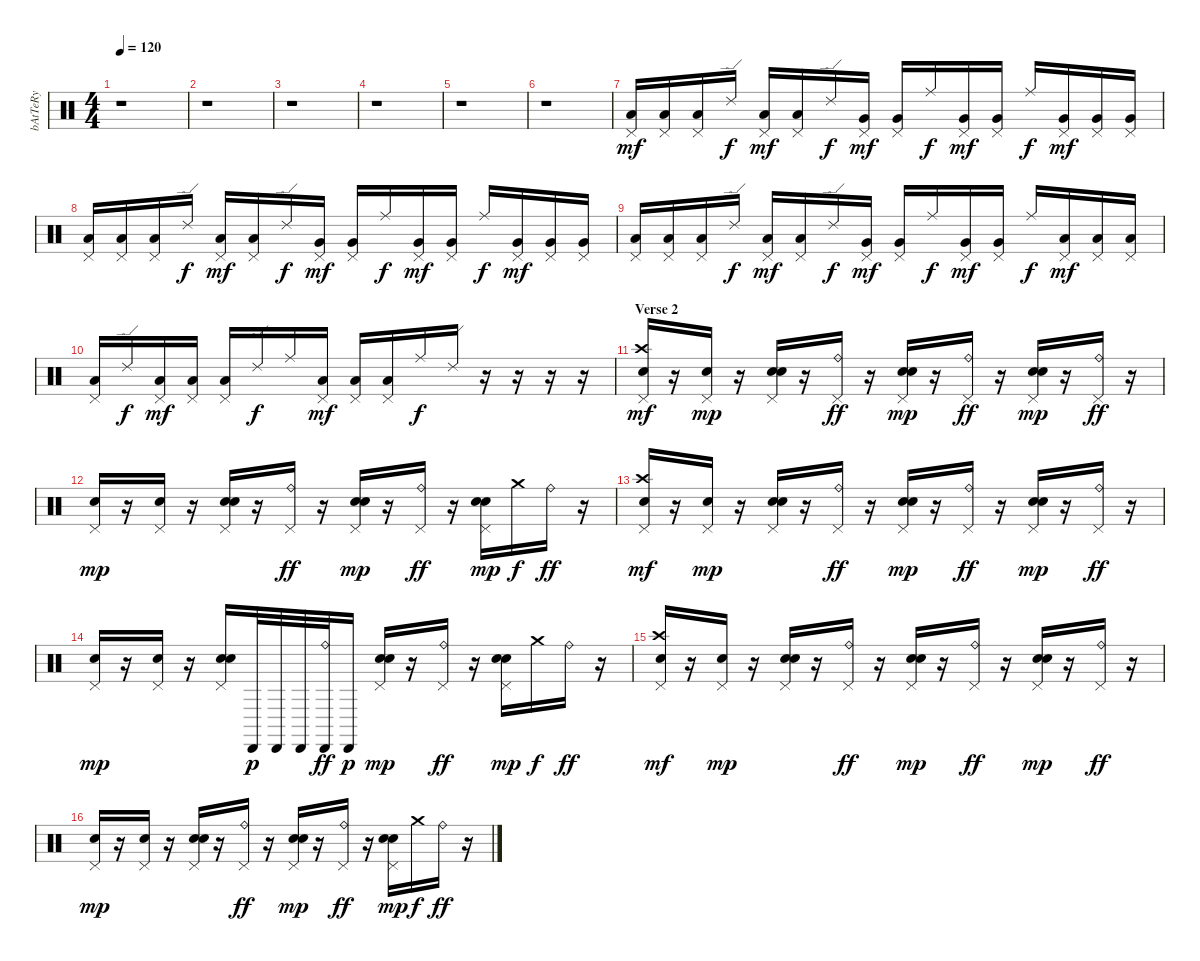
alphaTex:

\track ("bAtTeRy" "bAtTeRy") {instrument percussion}
\staff {score}
\articulation defaults
\ts (4 4)
\tempo 120
\clef neutral
\ks c
r.1{dy f} |
r.1 |
r.1 |
r.1 |
r.1 |
r.1 |
("Low Tom (hit)" "Pedal Hi-Hat (hit)").16{dy mf} ("Low Tom (hit)" "Pedal Hi-Hat (hit)").16 ("Low Tom (hit)" "Pedal Hi-Hat (hit)").16 "Ride (edge) 2".16{dy f} ("Low Tom (hit)" "Pedal Hi-Hat (hit)").16{dy mf} ("Low Tom (hit)" "Pedal Hi-Hat (hit)").16 "Ride (edge) 2".16{dy f} ("Very Low Tom (hit)" "Pedal Hi-Hat (hit)").16{dy mf} ("Very Low Tom (hit)" "Pedal Hi-Hat (hit)").16 "Ride (middle)".16{dy f} ("Very Low Tom (hit)" "Pedal Hi-Hat (hit)").16{dy mf} ("Very Low Tom (hit)" "Pedal Hi-Hat (hit)").16 "Ride (middle)".16{dy f} ("Very Low Tom (hit)" "Pedal Hi-Hat (hit)").16{dy mf} ("Very Low Tom (hit)" "Pedal Hi-Hat (hit)").16 ("Very Low Tom (hit)" "Pedal Hi-Hat (hit)").16 |
("Low Tom (hit)" "Pedal Hi-Hat (hit)").16 ("Low Tom (hit)" "Pedal Hi-Hat (hit)").16 ("Low Tom (hit)" "Pedal Hi-Hat (hit)").16 "Ride (edge) 2".16{dy f} ("Low Tom (hit)" "Pedal Hi-Hat (hit)").16{dy mf} ("Low Tom (hit)" "Pedal Hi-Hat (hit)").16 "Ride (edge) 2".16{dy f} ("Very Low Tom (hit)" "Pedal Hi-Hat (hit)").16{dy mf} ("Very Low Tom (hit)" "Pedal Hi-Hat (hit)").16 "Ride (middle)".16{dy f} ("Very Low Tom (hit)" "Pedal Hi-Hat (hit)").16{dy mf} ("Very Low Tom (hit)" "Pedal Hi-Hat (hit)").16 "Ride (middle)".16{dy f} ("Very Low Tom (hit)" "Pedal Hi-Hat (hit)").16{dy mf} ("Very Low Tom (hit)" "Pedal Hi-Hat (hit)").16 ("Very Low Tom (hit)" "Pedal Hi-Hat (hit)").16 |
("Low Tom (hit)" "Pedal Hi-Hat (hit)").16 ("Low Tom (hit)" "Pedal Hi-Hat (hit)").16 ("Low Tom (hit)" "Pedal Hi-Hat (hit)").16 "Ride (edge) 2".16{dy f} ("Low Tom (hit)" "Pedal Hi-Hat (hit)").16{dy mf} ("Low Tom (hit)" "Pedal Hi-Hat (hit)").16 "Ride (edge) 2".16{dy f} ("Very Low Tom (hit)" "Pedal Hi-Hat (hit)").16{dy mf} ("Very Low Tom (hit)" "Pedal Hi-Hat (hit)").16 "Ride (middle)".16{dy f} ("Very Low Tom (hit)" "Pedal Hi-Hat (hit)").16{dy mf} ("Very Low Tom (hit)" "Pedal Hi-Hat (hit)").16 "Ride (middle)".16{dy f} ("Low Floor Tom (hit)" "Pedal Hi-Hat (hit)").16{dy mf} ("Low Floor Tom (hit)" "Pedal Hi-Hat (hit)").16 ("Low Floor Tom (hit)" "Pedal Hi-Hat (hit)").16 |
("Low Floor Tom (hit)" "Pedal Hi-Hat (hit)").16 "Ride (edge) 2".16{dy f} ("Low Floor Tom (hit)" "Pedal Hi-Hat (hit)").16{dy mf} ("Low Floor Tom (hit)" "Pedal Hi-Hat (hit)").16 ("Low Floor Tom (hit)" "Pedal Hi-Hat (hit)").16 "Ride (edge) 2".16{dy f} "Ride (middle)".16 ("Low Floor Tom (hit)" "Pedal Hi-Hat (hit)").16{dy mf} ("Low Floor Tom (hit)" "Pedal Hi-Hat (hit)").16 ("Low Floor Tom (hit)" "Pedal Hi-Hat (hit)").16 "Ride (middle)".16{dy f} "Ride (edge) 2".16 r.16 r.16 r.16 r.16 |
\section ("" "Verse 2")
("Pedal Hi-Hat (hit)" "Crash high (hit)" "Electric Snare (hit)").16{dy mf} r.16 ("Pedal Hi-Hat (hit)" "Electric Snare (hit)").16{dy mp} r.16 ("Pedal Hi-Hat (hit)" "Electric Snare (hit)" "Electric Snare (hit)").16{bd 480} r.16 ("Pedal Hi-Hat (hit)" "Ride (bell)").16{dy ff} r.16 ("Pedal Hi-Hat (hit)" "Electric Snare (hit)" "Electric Snare (hit)").16{bd 480 dy mp} r.16 ("Pedal Hi-Hat (hit)" "Ride (bell)").16{dy ff} r.16 ("Pedal Hi-Hat (hit)" "Electric Snare (hit)" "Electric Snare (hit)").16{bd 480 dy mp} r.16 ("Pedal Hi-Hat (hit)" "Ride (bell)").16{dy ff} r.16 |
("Pedal Hi-Hat (hit)" "Electric Snare (hit)").16{dy mp} r.16 ("Pedal Hi-Hat (hit)" "Electric Snare (hit)").16 r.16 ("Pedal Hi-Hat (hit)" "Electric Snare (hit)" "Electric Snare (hit)").16{bd 480} r.16 ("Pedal Hi-Hat (hit)" "Ride (bell)").16{dy ff} r.16 ("Pedal Hi-Hat (hit)" "Electric Snare (hit)" "Electric Snare (hit)").16{bd 480 dy mp} r.16 ("Pedal Hi-Hat (hit)" "Ride (bell)").16{dy ff} r.16 ("Pedal Hi-Hat (hit)" "Electric Snare (hit)" "Electric Snare (hit)").16{bd 480 dy mp} "Crash medium (hit)".16{dy f} "Ride (bell)".16{dy ff} r.16 |
("Pedal Hi-Hat (hit)" "Crash high (hit)" "Electric Snare (hit)").16{dy mf} r.16 ("Pedal Hi-Hat (hit)" "Electric Snare (hit)").16{dy mp} r.16 ("Pedal Hi-Hat (hit)" "Electric Snare (hit)" "Electric Snare (hit)").16{bd 480} r.16 ("Pedal Hi-Hat (hit)" "Ride (bell)").16{dy ff} r.16 ("Pedal Hi-Hat (hit)" "Electric Snare (hit)" "Electric Snare (hit)").16{bd 480 dy mp} r.16 ("Pedal Hi-Hat (hit)" "Ride (bell)").16{dy ff} r.16 ("Pedal Hi-Hat (hit)" "Electric Snare (hit)" "Electric Snare (hit)").16{bd 480 dy mp} r.16 ("Pedal Hi-Hat (hit)" "Ride (bell)").16{dy ff} r.16 |
("Pedal Hi-Hat (hit)" "Electric Snare (hit)").16{dy mp} r.16 ("Pedal Hi-Hat (hit)" "Electric Snare (hit)").16 r.16 ("Pedal Hi-Hat (hit)" "Electric Snare (hit)" "Electric Snare (hit)").16{bd 480} "Cabasa (hit)".32{dy p} "Cabasa (hit)".32 "Cabasa (hit)".32 ("Cabasa (hit)" "Ride (bell)").32{dy ff} "Cabasa (hit)".16{dy p} ("Pedal Hi-Hat (hit)" "Electric Snare (hit)" "Electric Snare (hit)").16{bd 480 dy mp} r.16 ("Pedal Hi-Hat (hit)" "Ride (bell)").16{dy ff} r.16 ("Pedal Hi-Hat (hit)" "Electric Snare (hit)" "Electric Snare (hit)").16{bd 480 dy mp} "Crash medium (hit)".16{dy f} "Ride (bell)".16{dy ff} r.16 |
("Pedal Hi-Hat (hit)" "Crash high (hit)" "Electric Snare (hit)").16{dy mf} r.16 ("Pedal Hi-Hat (hit)" "Electric Snare (hit)").16{dy mp} r.16 ("Pedal Hi-Hat (hit)" "Electric Snare (hit)" "Electric Snare (hit)").16{bd 480} r.16 ("Pedal Hi-Hat (hit)" "Ride (bell)").16{dy ff} r.16 ("Pedal Hi-Hat (hit)" "Electric Snare (hit)" "Electric Snare (hit)").16{bd 480 dy mp} r.16 ("Pedal Hi-Hat (hit)" "Ride (bell)").16{dy ff} r.16 ("Pedal Hi-Hat (hit)" "Electric Snare (hit)" "Electric Snare (hit)").16{bd 480 dy mp} r.16 ("Pedal Hi-Hat (hit)" "Ride (bell)").16{dy ff} r.16 |
("Pedal Hi-Hat (hit)" "Electric Snare (hit)").16{dy mp} r.16 ("Pedal Hi-Hat (hit)" "Electric Snare (hit)").16 r.16 ("Pedal Hi-Hat (hit)" "Electric Snare (hit)" "Electric Snare (hit)").16{bd 480} r.16 ("Pedal Hi-Hat (hit)" "Ride (bell)").16{dy ff} r.16 ("Pedal Hi-Hat (hit)" "Electric Snare (hit)" "Electric Snare (hit)").16{bd 480 dy mp} r.16 ("Pedal Hi-Hat (hit)" "Ride (bell)").16{dy ff} r.16 ("Pedal Hi-Hat (hit)" "Electric Snare (hit)" "Electric Snare (hit)").16{bd 480 dy mp} "Crash medium (hit)".16{dy f} "Ride (bell)".16{dy ff} r.16
